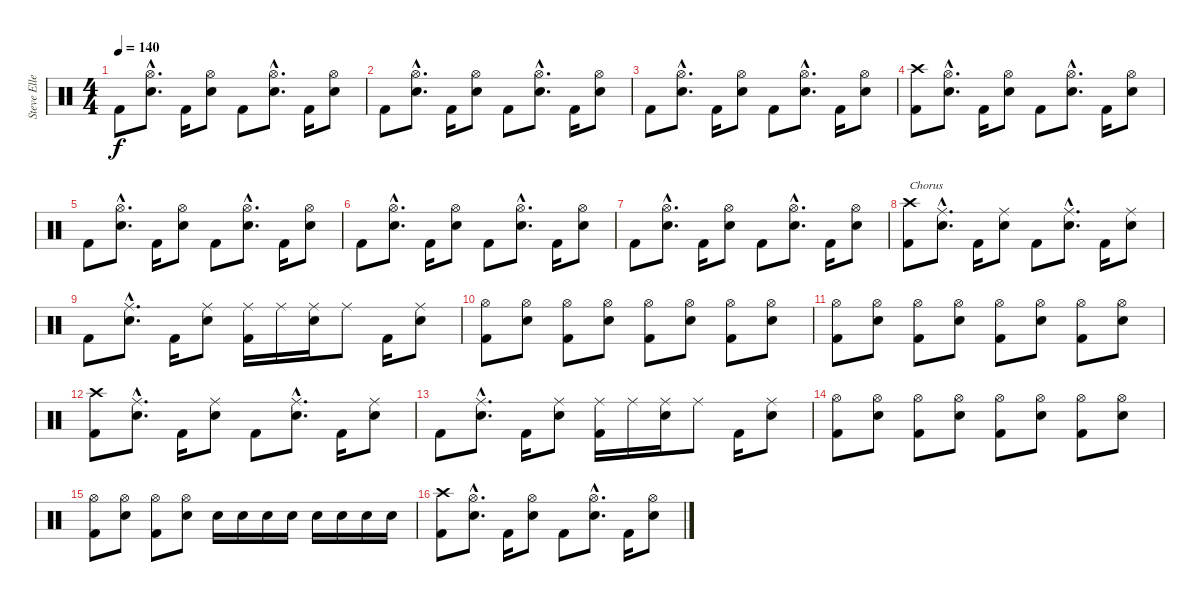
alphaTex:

\track ("Steve Ellett" "Steve Elle") {instrument percussion}
\staff {score}
\articulation defaults
\ts (4 4)
\tempo 140
\clef neutral
\ks c "Kick (hit) 2".8{dy f}
("Hi-Hat (open)"{hac} "Snare (hit) 2"{hac}).8{d} "Kick (hit) 2".16 ("Hi-Hat (open)" "Snare (hit) 2").8 "Kick (hit) 2".8 ("Hi-Hat (open)"{hac} "Snare (hit) 2"{hac}).8{d} "Kick (hit) 2".16 ("Hi-Hat (open)" "Snare (hit) 2").8 |
"Kick (hit) 2".8 ("Hi-Hat (open)"{hac} "Snare (hit) 2"{hac}).8{d} "Kick (hit) 2".16 ("Hi-Hat (open)" "Snare (hit) 2").8 "Kick (hit) 2".8 ("Hi-Hat (open)"{hac} "Snare (hit) 2"{hac}).8{d} "Kick (hit) 2".16 ("Hi-Hat (open)" "Snare (hit) 2").8 |
"Kick (hit) 2".8 ("Hi-Hat (open)"{hac} "Snare (hit) 2"{hac}).8{d} "Kick (hit) 2".16 ("Hi-Hat (open)" "Snare (hit) 2").8 "Kick (hit) 2".8 ("Hi-Hat (open)"{hac} "Snare (hit) 2"{hac}).8{d} "Kick (hit) 2".16 ("Hi-Hat (open)" "Snare (hit) 2").8 |
("Crash high (hit)" "Kick (hit) 2").8 ("Hi-Hat (open)"{hac} "Snare (hit) 2"{hac}).8{d} "Kick (hit) 2".16 ("Hi-Hat (open)" "Snare (hit) 2").8 "Kick (hit) 2".8 ("Hi-Hat (open)"{hac} "Snare (hit) 2"{hac}).8{d} "Kick (hit) 2".16 ("Hi-Hat (open)" "Snare (hit) 2").8 |
"Kick (hit) 2".8 ("Hi-Hat (open)"{hac} "Snare (hit) 2"{hac}).8{d} "Kick (hit) 2".16 ("Hi-Hat (open)" "Snare (hit) 2").8 "Kick (hit) 2".8 ("Hi-Hat (open)"{hac} "Snare (hit) 2"{hac}).8{d} "Kick (hit) 2".16 ("Hi-Hat (open)" "Snare (hit) 2").8 |
"Kick (hit) 2".8 ("Hi-Hat (open)"{hac} "Snare (hit) 2"{hac}).8{d} "Kick (hit) 2".16 ("Hi-Hat (open)" "Snare (hit) 2").8 "Kick (hit) 2".8 ("Hi-Hat (open)"{hac} "Snare (hit) 2"{hac}).8{d} "Kick (hit) 2".16 ("Hi-Hat (open)" "Snare (hit) 2").8 |
"Kick (hit) 2".8 ("Hi-Hat (open)"{hac} "Snare (hit) 2"{hac}).8{d} "Kick (hit) 2".16 ("Hi-Hat (open)" "Snare (hit) 2").8 "Kick (hit) 2".8 ("Hi-Hat (open)"{hac} "Snare (hit) 2"{hac}).8{d} "Kick (hit) 2".16 ("Hi-Hat (open)" "Snare (hit) 2").8 |
("Crash high (hit)" "Kick (hit) 2").8{txt "Chorus"} ("Ride (middle)"{hac} "Snare (hit) 2"{hac}).8{d} "Kick (hit) 2".16 ("Ride (middle)" "Snare (hit) 2").8 "Kick (hit) 2".8 ("Ride (middle)"{hac} "Snare (hit) 2"{hac}).8{d} "Kick (hit) 2".16 ("Ride (middle)" "Snare (hit) 2").8 |
"Kick (hit) 2".8 ("Ride (middle)"{hac} "Snare (hit) 2"{hac}).8{d} "Kick (hit) 2".16 ("Ride (middle)" "Snare (hit) 2").8 ("Ride (middle)" "Kick (hit) 2").16 "Ride (middle)".16 ("Ride (middle)" "Snare (hit) 2").16 "Ride (middle)".8 "Kick (hit) 2".16 ("Ride (middle)" "Snare (hit) 2").8 |
("Hi-Hat (open)" "Kick (hit) 2").8 ("Hi-Hat (open)" "Snare (hit) 2").8 ("Hi-Hat (open)" "Kick (hit) 2").8 ("Hi-Hat (open)" "Snare (hit) 2").8 ("Hi-Hat (open)" "Kick (hit) 2").8 ("Hi-Hat (open)" "Snare (hit) 2").8 ("Hi-Hat (open)" "Kick (hit) 2").8 ("Hi-Hat (open)" "Snare (hit) 2").8 |
("Hi-Hat (open)" "Kick (hit) 2").8 ("Hi-Hat (open)" "Snare (hit) 2").8 ("Hi-Hat (open)" "Kick (hit) 2").8 ("Hi-Hat (open)" "Snare (hit) 2").8 ("Hi-Hat (open)" "Kick (hit) 2").8 ("Hi-Hat (open)" "Snare (hit) 2").8 ("Hi-Hat (open)" "Kick (hit) 2").8 ("Hi-Hat (open)" "Snare (hit) 2").8 |
("Crash high (hit)" "Kick (hit) 2").8 ("Ride (middle)"{hac} "Snare (hit) 2"{hac}).8{d} "Kick (hit) 2".16 ("Ride (middle)" "Snare (hit) 2").8 "Kick (hit) 2".8 ("Ride (middle)"{hac} "Snare (hit) 2"{hac}).8{d} "Kick (hit) 2".16 ("Ride (middle)" "Snare (hit) 2").8 |
"Kick (hit) 2".8 ("Ride (middle)"{hac} "Snare (hit) 2"{hac}).8{d} "Kick (hit) 2".16 ("Ride (middle)" "Snare (hit) 2").8 ("Ride (middle)" "Kick (hit) 2").16 "Ride (middle)".16 ("Ride (middle)" "Snare (hit) 2").16 "Ride (middle)".8 "Kick (hit) 2".16 ("Ride (middle)" "Snare (hit) 2").8 |
("Hi-Hat (open)" "Kick (hit) 2").8 ("Hi-Hat (open)" "Snare (hit) 2").8 ("Hi-Hat (open)" "Kick (hit) 2").8 ("Hi-Hat (open)" "Snare (hit) 2").8 ("Hi-Hat (open)" "Kick (hit) 2").8 ("Hi-Hat (open)" "Snare (hit) 2").8 ("Hi-Hat (open)" "Kick (hit) 2").8 ("Hi-Hat (open)" "Snare (hit) 2").8 |
("Hi-Hat (open)" "Kick (hit) 2").8 ("Hi-Hat (open)" "Snare (hit) 2").8 ("Hi-Hat (open)" "Kick (hit) 2").8 ("Hi-Hat (open)" "Snare (hit) 2").8 "Snare (hit) 2".16 "Snare (hit) 2".16 "Snare (hit) 2".16 "Snare (hit) 2".16 "Snare (hit) 2".16 "Snare (hit) 2".16 "Snare (hit) 2".16 "Snare (hit) 2".16 |
("Crash high (hit)" "Kick (hit) 2").8 ("Hi-Hat (open)"{hac} "Snare (hit) 2"{hac}).8{d} "Kick (hit) 2".16 ("Hi-Hat (open)" "Snare (hit) 2").8 "Kick (hit) 2".8 ("Hi-Hat (open)"{hac} "Snare (hit) 2"{hac}).8{d} "Kick (hit) 2".16 ("Hi-Hat (open)" "Snare (hit) 2").8
